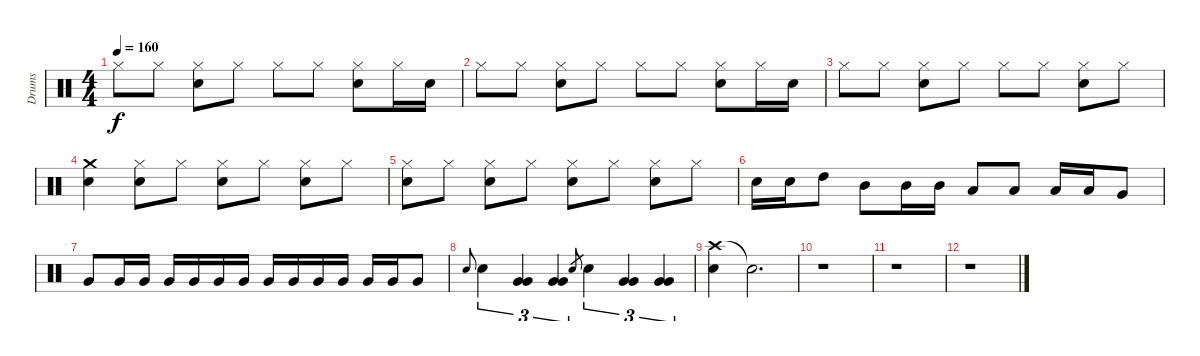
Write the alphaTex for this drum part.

\track ("Drums" "Drums") {instrument percussion}
\staff {score}
\articulation defaults
\ts (4 4)
\tempo 160
\clef neutral
\ks c "Hi-Hat (closed)".8{dy f} "Hi-Hat (closed)".8
("Hi-Hat (closed)" "Snare (hit) 2").8 "Hi-Hat (closed)".8 "Hi-Hat (closed)".8 "Hi-Hat (closed)".8 ("Hi-Hat (closed)" "Snare (hit) 2").8 "Hi-Hat (closed)".16 "Snare (hit) 2".16 |
"Hi-Hat (closed)".8 "Hi-Hat (closed)".8 ("Hi-Hat (closed)" "Snare (hit) 2").8 "Hi-Hat (closed)".8 "Hi-Hat (closed)".8 "Hi-Hat (closed)".8 ("Hi-Hat (closed)" "Snare (hit) 2").8 "Hi-Hat (closed)".16 "Snare (hit) 2".16 |
"Hi-Hat (closed)".8 "Hi-Hat (closed)".8 ("Hi-Hat (closed)" "Snare (hit) 2").8 "Hi-Hat (closed)".8 "Hi-Hat (closed)".8 "Hi-Hat (closed)".8 ("Hi-Hat (closed)" "Snare (hit) 2").8 "Hi-Hat (closed)".8 |
("Crash medium (hit)" "Snare (hit) 2").4 ("Hi-Hat (closed)" "Snare (hit) 2").8 "Hi-Hat (closed)".8 ("Hi-Hat (closed)" "Snare (hit) 2").8 "Hi-Hat (closed)".8 ("Hi-Hat (closed)" "Snare (hit) 2").8 "Hi-Hat (closed)".8 |
("Hi-Hat (closed)" "Snare (hit) 2").8 "Hi-Hat (closed)".8 ("Hi-Hat (closed)" "Snare (hit) 2").8 "Hi-Hat (closed)".8 ("Hi-Hat (closed)" "Snare (hit) 2").8 "Hi-Hat (closed)".8 ("Hi-Hat (closed)" "Snare (hit) 2").8 "Hi-Hat (closed)".8 |
"Snare (hit) 2".16 "Snare (hit) 2".16 "High Tom (hit)".8 "Mid Tom (hit)".8 "Mid Tom (hit)".16 "Mid Tom (hit)".16 "Low Tom (hit)".8 "Low Tom (hit)".8 "Low Tom (hit)".16 "Low Tom (hit)".16 "Very Low Tom (hit)".8 |
"Very Low Tom (hit)".8 "Very Low Tom (hit)".16 "Very Low Tom (hit)".16 "Very Low Tom (hit)".16 "Very Low Tom (hit)".16 "Very Low Tom (hit)".16 "Very Low Tom (hit)".16 "Very Low Tom (hit)".16 "Very Low Tom (hit)".16 "Very Low Tom (hit)".16 "Very Low Tom (hit)".16 "Very Low Tom (hit)".16 "Very Low Tom (hit)".16 "Very Low Tom (hit)".8 |
"Snare (hit) 2".8{gr onbeat} "Snare (hit) 2".4{tu (3 2)} ("Very Low Tom (hit)" "Very Low Tom (hit)").4{tu (3 2)} ("Very Low Tom (hit)" "Very Low Tom (hit)").4{tu (3 2)} "Snare (hit) 2".8{gr} "Snare (hit) 2".4{tu (3 2)} ("Very Low Tom (hit)" "Very Low Tom (hit)").4{tu (3 2)} ("Very Low Tom (hit)" "Very Low Tom (hit)").4{tu (3 2)} |
("Crash high (hit)" "Snare (hit) 2").4 "Snare (hit)"{t}.2{d} |
r.1 |
r.1 |
r.1
